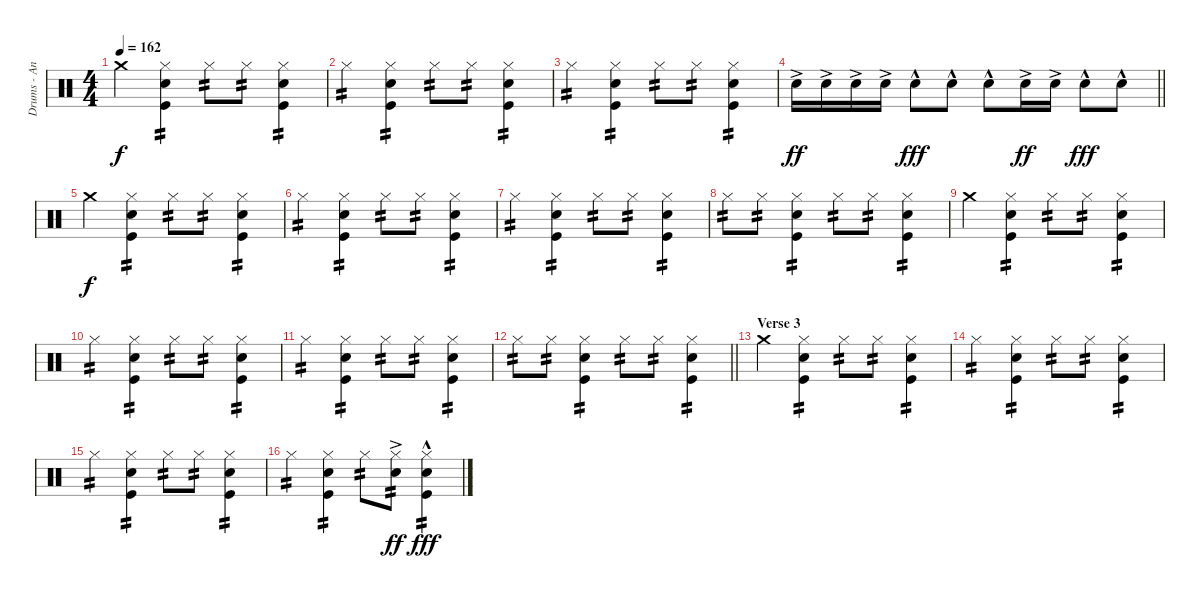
\track ("Drums - Andriushkin" "Drums - An") {instrument percussion}
\staff {score}
\articulation defaults
\ts (4 4)
\tempo 162
\clef neutral
\ks c "Crash medium (hit)".4{dy f}
("Hi-Hat (closed)" "Electric Snare (hit)" "Kick (hit)").4{tp 2} "Hi-Hat (closed)".8{tp 2} "Hi-Hat (closed)".8{tp 2} ("Hi-Hat (closed)" "Electric Snare (hit)" "Kick (hit)").4{tp 2} |
"Hi-Hat (closed)".4{tp 2} ("Hi-Hat (closed)" "Electric Snare (hit)" "Kick (hit)").4{tp 2} "Hi-Hat (closed)".8{tp 2} "Hi-Hat (closed)".8{tp 2} ("Hi-Hat (closed)" "Electric Snare (hit)" "Kick (hit)").4{tp 2} |
"Hi-Hat (closed)".4{tp 2} ("Hi-Hat (closed)" "Electric Snare (hit)" "Kick (hit)").4{tp 2} "Hi-Hat (closed)".8{tp 2} "Hi-Hat (closed)".8{tp 2} ("Hi-Hat (closed)" "Electric Snare (hit)" "Kick (hit)").4{tp 2} |
\barLineRight lightlight "Electric Snare (hit)"{ac}.16{dy ff} "Electric Snare (hit)"{ac}.16 "Electric Snare (hit)"{ac}.16 "Electric Snare (hit)"{ac}.16 "Electric Snare (hit)"{hac}.8{dy fff} "Electric Snare (hit)"{hac}.8 "Electric Snare (hit)"{hac}.8 "Electric Snare (hit)"{ac}.16{dy ff} "Electric Snare (hit)"{ac}.16 "Electric Snare (hit)"{hac}.8{dy fff} "Electric Snare (hit)"{hac}.8
|
"Crash medium (hit)".4{dy f} ("Hi-Hat (closed)" "Electric Snare (hit)" "Kick (hit)").4{tp 2} "Hi-Hat (closed)".8{tp 2} "Hi-Hat (closed)".8{tp 2} ("Hi-Hat (closed)" "Electric Snare (hit)" "Kick (hit)").4{tp 2} |
"Hi-Hat (closed)".4{tp 2} ("Hi-Hat (closed)" "Electric Snare (hit)" "Kick (hit)").4{tp 2} "Hi-Hat (closed)".8{tp 2} "Hi-Hat (closed)".8{tp 2} ("Hi-Hat (closed)" "Electric Snare (hit)" "Kick (hit)").4{tp 2} |
"Hi-Hat (closed)".4{tp 2} ("Hi-Hat (closed)" "Electric Snare (hit)" "Kick (hit)").4{tp 2} "Hi-Hat (closed)".8{tp 2} "Hi-Hat (closed)".8{tp 2} ("Hi-Hat (closed)" "Electric Snare (hit)" "Kick (hit)").4{tp 2} |
"Hi-Hat (closed)".8{tp 2} "Hi-Hat (closed)".8{tp 2} ("Hi-Hat (closed)" "Electric Snare (hit)" "Kick (hit)").4{tp 2} "Hi-Hat (closed)".8{tp 2} "Hi-Hat (closed)".8{tp 2} ("Hi-Hat (closed)" "Electric Snare (hit)" "Kick (hit)").4{tp 2} |
"Crash medium (hit)".4 ("Hi-Hat (closed)" "Electric Snare (hit)" "Kick (hit)").4{tp 2} "Hi-Hat (closed)".8{tp 2} "Hi-Hat (closed)".8{tp 2} ("Hi-Hat (closed)" "Electric Snare (hit)" "Kick (hit)").4{tp 2} |
"Hi-Hat (closed)".4{tp 2} ("Hi-Hat (closed)" "Electric Snare (hit)" "Kick (hit)").4{tp 2} "Hi-Hat (closed)".8{tp 2} "Hi-Hat (closed)".8{tp 2} ("Hi-Hat (closed)" "Electric Snare (hit)" "Kick (hit)").4{tp 2} |
"Hi-Hat (closed)".4{tp 2} ("Hi-Hat (closed)" "Electric Snare (hit)" "Kick (hit)").4{tp 2} "Hi-Hat (closed)".8{tp 2} "Hi-Hat (closed)".8{tp 2} ("Hi-Hat (closed)" "Electric Snare (hit)" "Kick (hit)").4{tp 2} |
\barLineRight lightlight "Hi-Hat (closed)".8{tp 2} "Hi-Hat (closed)".8{tp 2}
("Hi-Hat (closed)" "Electric Snare (hit)" "Kick (hit)").4{tp 2} "Hi-Hat (closed)".8{tp 2} "Hi-Hat (closed)".8{tp 2} ("Hi-Hat (closed)" "Electric Snare (hit)" "Kick (hit)").4{tp 2} |
\section ("" "Verse 3")
"Crash medium (hit)".4 ("Hi-Hat (closed)" "Electric Snare (hit)" "Kick (hit)").4{tp 2} "Hi-Hat (closed)".8{tp 2} "Hi-Hat (closed)".8{tp 2} ("Hi-Hat (closed)" "Electric Snare (hit)" "Kick (hit)").4{tp 2} |
"Hi-Hat (closed)".4{tp 2} ("Hi-Hat (closed)" "Electric Snare (hit)" "Kick (hit)").4{tp 2} "Hi-Hat (closed)".8{tp 2} "Hi-Hat (closed)".8{tp 2} ("Hi-Hat (closed)" "Electric Snare (hit)" "Kick (hit)").4{tp 2} |
"Hi-Hat (closed)".4{tp 2} ("Hi-Hat (closed)" "Electric Snare (hit)" "Kick (hit)").4{tp 2} "Hi-Hat (closed)".8{tp 2} "Hi-Hat (closed)".8{tp 2} ("Hi-Hat (closed)" "Electric Snare (hit)" "Kick (hit)").4{tp 2} |
"Hi-Hat (closed)".4{tp 2} ("Hi-Hat (closed)" "Electric Snare (hit)" "Kick (hit)").4{tp 2} "Hi-Hat (closed)".8{tp 2} ("Hi-Hat (closed)" "Electric Snare (hit)"{ac}).8{tp 2 dy ff} ("Hi-Hat (closed)" "Electric Snare (hit)"{hac} "Kick (hit)").4{tp 2 dy fff}
